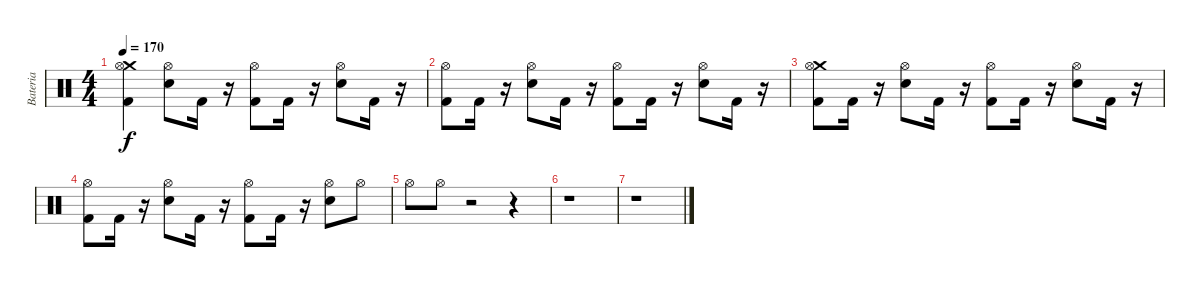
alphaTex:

\track ("Bateria" "Bateria") {instrument percussion}
\staff {score}
\articulation defaults
\ts (4 4)
\tempo 170
\clef neutral
\ks c
("Crash medium (hit)" "Hi-Hat (open)" "Kick (hit) 2").4{dy f} ("Hi-Hat (open)" "Electric Snare (hit)").8 "Kick (hit) 2".16 r.16 ("Hi-Hat (open)" "Kick (hit) 2").8 "Kick (hit) 2".16 r.16 ("Hi-Hat (open)" "Electric Snare (hit)").8 "Kick (hit) 2".16 r.16 |
("Hi-Hat (open)" "Kick (hit) 2").8 "Kick (hit) 2".16 r.16 ("Hi-Hat (open)" "Electric Snare (hit)").8 "Kick (hit) 2".16 r.16 ("Hi-Hat (open)" "Kick (hit) 2").8 "Kick (hit) 2".16 r.16 ("Hi-Hat (open)" "Electric Snare (hit)").8 "Kick (hit) 2".16 r.16 |
("Crash medium (hit)" "Hi-Hat (open)" "Kick (hit) 2").8 "Kick (hit) 2".16 r.16 ("Hi-Hat (open)" "Electric Snare (hit)").8 "Kick (hit) 2".16 r.16 ("Hi-Hat (open)" "Kick (hit) 2").8 "Kick (hit) 2".16 r.16 ("Hi-Hat (open)" "Electric Snare (hit)").8 "Kick (hit) 2".16 r.16 |
("Hi-Hat (open)" "Kick (hit) 2").8 "Kick (hit) 2".16 r.16 ("Hi-Hat (open)" "Electric Snare (hit)").8 "Kick (hit) 2".16 r.16 ("Hi-Hat (open)" "Kick (hit) 2").8 "Kick (hit) 2".16 r.16 ("Hi-Hat (open)" "Electric Snare (hit)").8 "Hi-Hat (open)".8 |
"Hi-Hat (open)".8 "Hi-Hat (open)".8 r.2 r.4 |
r.1 |
r.1
